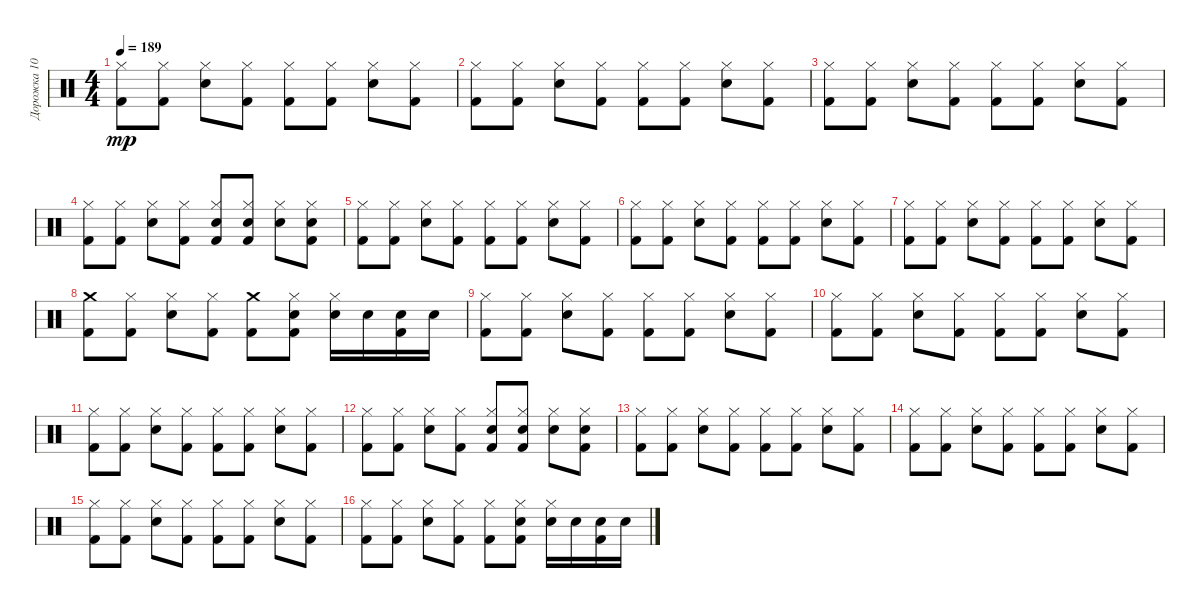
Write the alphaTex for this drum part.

\track ("Дорожка 10" "Дорожка 10") {instrument percussion}
\staff {score}
\articulation defaults
\ts (4 4)
\tempo 189
\clef neutral
\ks c
("Kick (hit) 2" "Hi-Hat (closed)").8{dy mp} ("Kick (hit) 2" "Hi-Hat (closed)").8 ("Snare (hit) 2" "Hi-Hat (closed)").8 ("Kick (hit) 2" "Hi-Hat (closed)").8 ("Kick (hit) 2" "Hi-Hat (closed)").8 ("Kick (hit) 2" "Hi-Hat (closed)").8 ("Snare (hit) 2" "Hi-Hat (closed)").8 ("Kick (hit) 2" "Hi-Hat (closed)").8 |
("Kick (hit) 2" "Hi-Hat (closed)").8 ("Kick (hit) 2" "Hi-Hat (closed)").8 ("Snare (hit) 2" "Hi-Hat (closed)").8 ("Kick (hit) 2" "Hi-Hat (closed)").8 ("Kick (hit) 2" "Hi-Hat (closed)").8 ("Kick (hit) 2" "Hi-Hat (closed)").8 ("Snare (hit) 2" "Hi-Hat (closed)").8 ("Kick (hit) 2" "Hi-Hat (closed)").8 |
("Kick (hit) 2" "Hi-Hat (closed)").8 ("Kick (hit) 2" "Hi-Hat (closed)").8 ("Snare (hit) 2" "Hi-Hat (closed)").8 ("Kick (hit) 2" "Hi-Hat (closed)").8 ("Kick (hit) 2" "Hi-Hat (closed)").8 ("Kick (hit) 2" "Hi-Hat (closed)").8 ("Snare (hit) 2" "Hi-Hat (closed)").8 ("Kick (hit) 2" "Hi-Hat (closed)").8 |
("Kick (hit) 2" "Hi-Hat (closed)").8 ("Kick (hit) 2" "Hi-Hat (closed)").8 ("Snare (hit) 2" "Hi-Hat (closed)").8 ("Kick (hit) 2" "Hi-Hat (closed)").8 ("Kick (hit) 2" "Snare (hit) 2" "Hi-Hat (closed)").8 ("Kick (hit) 2" "Snare (hit) 2" "Hi-Hat (closed)").8 ("Snare (hit) 2" "Hi-Hat (closed)").8 ("Kick (hit) 2" "Snare (hit) 2" "Hi-Hat (closed)").8 |
("Kick (hit) 2" "Hi-Hat (closed)").8 ("Kick (hit) 2" "Hi-Hat (closed)").8 ("Snare (hit) 2" "Hi-Hat (closed)").8 ("Kick (hit) 2" "Hi-Hat (closed)").8 ("Kick (hit) 2" "Hi-Hat (closed)").8 ("Kick (hit) 2" "Hi-Hat (closed)").8 ("Snare (hit) 2" "Hi-Hat (closed)").8 ("Kick (hit) 2" "Hi-Hat (closed)").8 |
("Kick (hit) 2" "Hi-Hat (closed)").8 ("Kick (hit) 2" "Hi-Hat (closed)").8 ("Snare (hit) 2" "Hi-Hat (closed)").8 ("Kick (hit) 2" "Hi-Hat (closed)").8 ("Kick (hit) 2" "Hi-Hat (closed)").8 ("Kick (hit) 2" "Hi-Hat (closed)").8 ("Snare (hit) 2" "Hi-Hat (closed)").8 ("Kick (hit) 2" "Hi-Hat (closed)").8 |
("Kick (hit) 2" "Hi-Hat (closed)").8 ("Kick (hit) 2" "Hi-Hat (closed)").8 ("Snare (hit) 2" "Hi-Hat (closed)").8 ("Kick (hit) 2" "Hi-Hat (closed)").8 ("Kick (hit) 2" "Hi-Hat (closed)").8 ("Kick (hit) 2" "Hi-Hat (closed)").8 ("Snare (hit) 2" "Hi-Hat (closed)").8 ("Kick (hit) 2" "Hi-Hat (closed)").8 |
("Kick (hit) 2" "Crash medium (hit)").8 ("Kick (hit) 2" "Hi-Hat (closed)").8 ("Snare (hit) 2" "Hi-Hat (closed)").8 ("Kick (hit) 2" "Hi-Hat (closed)").8 ("Kick (hit) 2" "Crash medium (hit)").8 ("Kick (hit) 2" "Snare (hit) 2" "Hi-Hat (closed)").8 ("Snare (hit) 2" "Hi-Hat (closed)").16 "Snare (hit) 2".16 ("Kick (hit) 2" "Snare (hit) 2").16 "Snare (hit) 2".16 |
("Kick (hit) 2" "Hi-Hat (closed)").8 ("Kick (hit) 2" "Hi-Hat (closed)").8 ("Snare (hit) 2" "Hi-Hat (closed)").8 ("Kick (hit) 2" "Hi-Hat (closed)").8 ("Kick (hit) 2" "Hi-Hat (closed)").8 ("Kick (hit) 2" "Hi-Hat (closed)").8 ("Snare (hit) 2" "Hi-Hat (closed)").8 ("Kick (hit) 2" "Hi-Hat (closed)").8 |
("Kick (hit) 2" "Hi-Hat (closed)").8 ("Kick (hit) 2" "Hi-Hat (closed)").8 ("Snare (hit) 2" "Hi-Hat (closed)").8 ("Kick (hit) 2" "Hi-Hat (closed)").8 ("Kick (hit) 2" "Hi-Hat (closed)").8 ("Kick (hit) 2" "Hi-Hat (closed)").8 ("Snare (hit) 2" "Hi-Hat (closed)").8 ("Kick (hit) 2" "Hi-Hat (closed)").8 |
("Kick (hit) 2" "Hi-Hat (closed)").8 ("Kick (hit) 2" "Hi-Hat (closed)").8 ("Snare (hit) 2" "Hi-Hat (closed)").8 ("Kick (hit) 2" "Hi-Hat (closed)").8 ("Kick (hit) 2" "Hi-Hat (closed)").8 ("Kick (hit) 2" "Hi-Hat (closed)").8 ("Snare (hit) 2" "Hi-Hat (closed)").8 ("Kick (hit) 2" "Hi-Hat (closed)").8 |
("Kick (hit) 2" "Hi-Hat (closed)").8 ("Kick (hit) 2" "Hi-Hat (closed)").8 ("Snare (hit) 2" "Hi-Hat (closed)").8 ("Kick (hit) 2" "Hi-Hat (closed)").8 ("Kick (hit) 2" "Snare (hit) 2" "Hi-Hat (closed)").8 ("Kick (hit) 2" "Snare (hit) 2" "Hi-Hat (closed)").8 ("Snare (hit) 2" "Hi-Hat (closed)").8 ("Kick (hit) 2" "Snare (hit) 2" "Hi-Hat (closed)").8 |
("Kick (hit) 2" "Hi-Hat (closed)").8 ("Kick (hit) 2" "Hi-Hat (closed)").8 ("Snare (hit) 2" "Hi-Hat (closed)").8 ("Kick (hit) 2" "Hi-Hat (closed)").8 ("Kick (hit) 2" "Hi-Hat (closed)").8 ("Kick (hit) 2" "Hi-Hat (closed)").8 ("Snare (hit) 2" "Hi-Hat (closed)").8 ("Kick (hit) 2" "Hi-Hat (closed)").8 |
("Kick (hit) 2" "Hi-Hat (closed)").8 ("Kick (hit) 2" "Hi-Hat (closed)").8 ("Snare (hit) 2" "Hi-Hat (closed)").8 ("Kick (hit) 2" "Hi-Hat (closed)").8 ("Kick (hit) 2" "Hi-Hat (closed)").8 ("Kick (hit) 2" "Hi-Hat (closed)").8 ("Snare (hit) 2" "Hi-Hat (closed)").8 ("Kick (hit) 2" "Hi-Hat (closed)").8 |
("Kick (hit) 2" "Hi-Hat (closed)").8 ("Kick (hit) 2" "Hi-Hat (closed)").8 ("Snare (hit) 2" "Hi-Hat (closed)").8 ("Kick (hit) 2" "Hi-Hat (closed)").8 ("Kick (hit) 2" "Hi-Hat (closed)").8 ("Kick (hit) 2" "Hi-Hat (closed)").8 ("Snare (hit) 2" "Hi-Hat (closed)").8 ("Kick (hit) 2" "Hi-Hat (closed)").8 |
("Kick (hit) 2" "Hi-Hat (closed)").8 ("Kick (hit) 2" "Hi-Hat (closed)").8 ("Snare (hit) 2" "Hi-Hat (closed)").8 ("Kick (hit) 2" "Hi-Hat (closed)").8 ("Kick (hit) 2" "Hi-Hat (closed)").8 ("Kick (hit) 2" "Snare (hit) 2" "Hi-Hat (closed)").8 ("Snare (hit) 2" "Hi-Hat (closed)").16 "Snare (hit) 2".16 ("Kick (hit) 2" "Snare (hit) 2").16 "Snare (hit) 2".16
